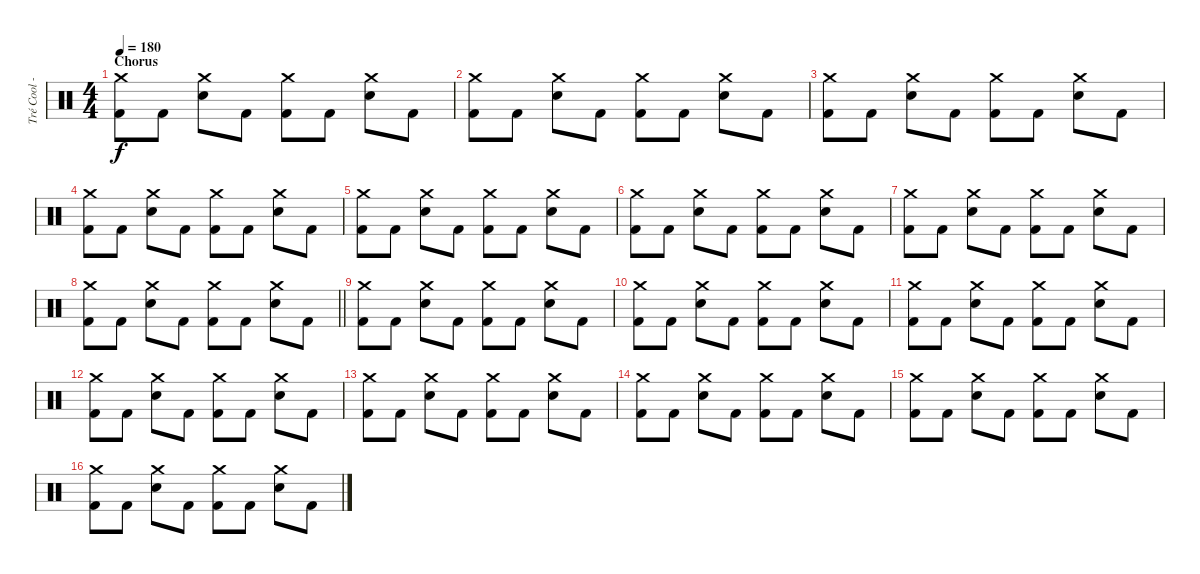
\track ("Tré Cool - Drums" "Tré Cool -") {instrument percussion}
\staff {score}
\articulation defaults
\ts (4 4)
\section ("" "Chorus")
\tempo 180
\clef neutral
\ks c
("Crash medium (hit)" "Kick (hit) 2").8{dy f} "Kick (hit) 2".8 ("Crash medium (hit)" "Electric Snare (hit)").8 "Kick (hit) 2".8 ("Crash medium (hit)" "Kick (hit) 2").8 "Kick (hit) 2".8 ("Crash medium (hit)" "Electric Snare (hit)").8 "Kick (hit) 2".8 |
("Crash medium (hit)" "Kick (hit) 2").8 "Kick (hit) 2".8 ("Crash medium (hit)" "Electric Snare (hit)").8 "Kick (hit) 2".8 ("Crash medium (hit)" "Kick (hit) 2").8 "Kick (hit) 2".8 ("Crash medium (hit)" "Electric Snare (hit)").8 "Kick (hit) 2".8 |
("Crash medium (hit)" "Kick (hit) 2").8 "Kick (hit) 2".8 ("Crash medium (hit)" "Electric Snare (hit)").8 "Kick (hit) 2".8 ("Crash medium (hit)" "Kick (hit) 2").8 "Kick (hit) 2".8 ("Crash medium (hit)" "Electric Snare (hit)").8 "Kick (hit) 2".8 |
("Crash medium (hit)" "Kick (hit) 2").8 "Kick (hit) 2".8 ("Crash medium (hit)" "Electric Snare (hit)").8 "Kick (hit) 2".8 ("Crash medium (hit)" "Kick (hit) 2").8 "Kick (hit) 2".8 ("Crash medium (hit)" "Electric Snare (hit)").8 "Kick (hit) 2".8 |
("Crash medium (hit)" "Kick (hit) 2").8 "Kick (hit) 2".8 ("Crash medium (hit)" "Electric Snare (hit)").8 "Kick (hit) 2".8 ("Crash medium (hit)" "Kick (hit) 2").8 "Kick (hit) 2".8 ("Crash medium (hit)" "Electric Snare (hit)").8 "Kick (hit) 2".8 |
("Crash medium (hit)" "Kick (hit) 2").8 "Kick (hit) 2".8 ("Crash medium (hit)" "Electric Snare (hit)").8 "Kick (hit) 2".8 ("Crash medium (hit)" "Kick (hit) 2").8 "Kick (hit) 2".8 ("Crash medium (hit)" "Electric Snare (hit)").8 "Kick (hit) 2".8 |
("Crash medium (hit)" "Kick (hit) 2").8 "Kick (hit) 2".8 ("Crash medium (hit)" "Electric Snare (hit)").8 "Kick (hit) 2".8 ("Crash medium (hit)" "Kick (hit) 2").8 "Kick (hit) 2".8 ("Crash medium (hit)" "Electric Snare (hit)").8 "Kick (hit) 2".8 |
\barLineRight lightlight
("Crash medium (hit)" "Kick (hit) 2").8 "Kick (hit) 2".8 ("Crash medium (hit)" "Electric Snare (hit)").8 "Kick (hit) 2".8 ("Crash medium (hit)" "Kick (hit) 2").8 "Kick (hit) 2".8 ("Crash medium (hit)" "Electric Snare (hit)").8 "Kick (hit) 2".8 |
("Crash medium (hit)" "Kick (hit) 2").8 "Kick (hit) 2".8 ("Crash medium (hit)" "Electric Snare (hit)").8 "Kick (hit) 2".8 ("Crash medium (hit)" "Kick (hit) 2").8 "Kick (hit) 2".8 ("Crash medium (hit)" "Electric Snare (hit)").8 "Kick (hit) 2".8 |
("Crash medium (hit)" "Kick (hit) 2").8 "Kick (hit) 2".8 ("Crash medium (hit)" "Electric Snare (hit)").8 "Kick (hit) 2".8 ("Crash medium (hit)" "Kick (hit) 2").8 "Kick (hit) 2".8 ("Crash medium (hit)" "Electric Snare (hit)").8 "Kick (hit) 2".8 |
("Crash medium (hit)" "Kick (hit) 2").8 "Kick (hit) 2".8 ("Crash medium (hit)" "Electric Snare (hit)").8 "Kick (hit) 2".8 ("Crash medium (hit)" "Kick (hit) 2").8 "Kick (hit) 2".8 ("Crash medium (hit)" "Electric Snare (hit)").8 "Kick (hit) 2".8 |
("Crash medium (hit)" "Kick (hit) 2").8 "Kick (hit) 2".8 ("Crash medium (hit)" "Electric Snare (hit)").8 "Kick (hit) 2".8 ("Crash medium (hit)" "Kick (hit) 2").8 "Kick (hit) 2".8 ("Crash medium (hit)" "Electric Snare (hit)").8 "Kick (hit) 2".8 |
("Crash medium (hit)" "Kick (hit) 2").8 "Kick (hit) 2".8 ("Crash medium (hit)" "Electric Snare (hit)").8 "Kick (hit) 2".8 ("Crash medium (hit)" "Kick (hit) 2").8 "Kick (hit) 2".8 ("Crash medium (hit)" "Electric Snare (hit)").8 "Kick (hit) 2".8 |
("Crash medium (hit)" "Kick (hit) 2").8 "Kick (hit) 2".8 ("Crash medium (hit)" "Electric Snare (hit)").8 "Kick (hit) 2".8 ("Crash medium (hit)" "Kick (hit) 2").8 "Kick (hit) 2".8 ("Crash medium (hit)" "Electric Snare (hit)").8 "Kick (hit) 2".8 |
("Crash medium (hit)" "Kick (hit) 2").8 "Kick (hit) 2".8 ("Crash medium (hit)" "Electric Snare (hit)").8 "Kick (hit) 2".8 ("Crash medium (hit)" "Kick (hit) 2").8 "Kick (hit) 2".8 ("Crash medium (hit)" "Electric Snare (hit)").8 "Kick (hit) 2".8 |
("Crash medium (hit)" "Kick (hit) 2").8 "Kick (hit) 2".8 ("Crash medium (hit)" "Electric Snare (hit)").8 "Kick (hit) 2".8 ("Crash medium (hit)" "Kick (hit) 2").8 "Kick (hit) 2".8 ("Crash medium (hit)" "Electric Snare (hit)").8 "Kick (hit) 2".8
